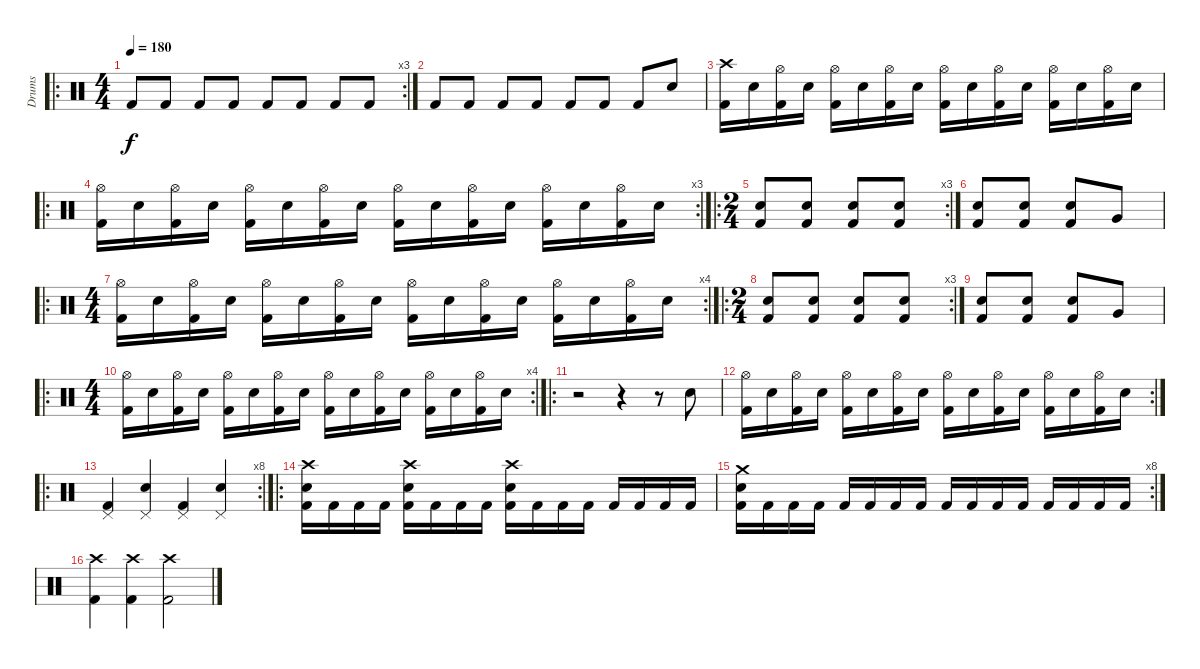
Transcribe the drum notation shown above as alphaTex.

\track ("Drums" "Drums") {instrument percussion}
\staff {score}
\articulation defaults
\ro
\rc 3
\ts (4 4)
\tempo 180
\clef neutral
\ks c "Kick (hit) 2".8{dy f} "Kick (hit) 2".8 "Kick (hit) 2".8 "Kick (hit) 2".8 "Kick (hit) 2".8 "Kick (hit) 2".8 "Kick (hit) 2".8 "Kick (hit) 2".8
|
"Kick (hit) 2".8 "Kick (hit) 2".8 "Kick (hit) 2".8 "Kick (hit) 2".8 "Kick (hit) 2".8 "Kick (hit) 2".8 "Kick (hit) 2".8 "Snare (hit) 2".8 |
("Crash high (hit)" "Kick (hit) 2").16 "Snare (hit) 2".16 ("Hi-Hat (open)" "Kick (hit) 2").16 "Snare (hit) 2".16 ("Hi-Hat (open)" "Kick (hit) 2").16 "Snare (hit) 2".16 ("Hi-Hat (open)" "Kick (hit) 2").16 "Snare (hit) 2".16 ("Hi-Hat (open)" "Kick (hit) 2").16 "Snare (hit) 2".16 ("Hi-Hat (open)" "Kick (hit) 2").16 "Snare (hit) 2".16 ("Hi-Hat (open)" "Kick (hit) 2").16 "Snare (hit) 2".16 ("Hi-Hat (open)" "Kick (hit) 2").16 "Snare (hit) 2".16 |
\ro
\rc 3
("Hi-Hat (open)" "Kick (hit) 2").16 "Snare (hit) 2".16 ("Hi-Hat (open)" "Kick (hit) 2").16 "Snare (hit) 2".16 ("Hi-Hat (open)" "Kick (hit) 2").16 "Snare (hit) 2".16 ("Hi-Hat (open)" "Kick (hit) 2").16 "Snare (hit) 2".16 ("Hi-Hat (open)" "Kick (hit) 2").16 "Snare (hit) 2".16 ("Hi-Hat (open)" "Kick (hit) 2").16 "Snare (hit) 2".16 ("Hi-Hat (open)" "Kick (hit) 2").16 "Snare (hit) 2".16 ("Hi-Hat (open)" "Kick (hit) 2").16 "Snare (hit) 2".16 |
\ro
\rc 3
\ts (2 4)
("Snare (hit) 2" "Kick (hit) 2").8 ("Snare (hit) 2" "Kick (hit) 2").8 ("Snare (hit) 2" "Kick (hit) 2").8 ("Snare (hit) 2" "Kick (hit) 2").8 |
("Snare (hit) 2" "Kick (hit) 2").8 ("Snare (hit) 2" "Kick (hit) 2").8 ("Snare (hit) 2" "Kick (hit) 2").8 "Very Low Tom (hit)".8 |
\ro
\rc 4
\ts (4 4)
("Hi-Hat (open)" "Kick (hit) 2").16 "Snare (hit) 2".16 ("Hi-Hat (open)" "Kick (hit) 2").16 "Snare (hit) 2".16 ("Hi-Hat (open)" "Kick (hit) 2").16 "Snare (hit) 2".16 ("Hi-Hat (open)" "Kick (hit) 2").16 "Snare (hit) 2".16 ("Hi-Hat (open)" "Kick (hit) 2").16 "Snare (hit) 2".16 ("Hi-Hat (open)" "Kick (hit) 2").16 "Snare (hit) 2".16 ("Hi-Hat (open)" "Kick (hit) 2").16 "Snare (hit) 2".16 ("Hi-Hat (open)" "Kick (hit) 2").16 "Snare (hit) 2".16 |
\ro
\rc 3
\ts (2 4)
("Snare (hit) 2" "Kick (hit) 2").8 ("Snare (hit) 2" "Kick (hit) 2").8 ("Snare (hit) 2" "Kick (hit) 2").8 ("Snare (hit) 2" "Kick (hit) 2").8 |
("Snare (hit) 2" "Kick (hit) 2").8 ("Snare (hit) 2" "Kick (hit) 2").8 ("Snare (hit) 2" "Kick (hit) 2").8 "Very Low Tom (hit)".8 |
\ro
\rc 4
\ts (4 4)
("Hi-Hat (open)" "Kick (hit) 2").16 "Snare (hit) 2".16 ("Hi-Hat (open)" "Kick (hit) 2").16 "Snare (hit) 2".16 ("Hi-Hat (open)" "Kick (hit) 2").16 "Snare (hit) 2".16 ("Hi-Hat (open)" "Kick (hit) 2").16 "Snare (hit) 2".16 ("Hi-Hat (open)" "Kick (hit) 2").16 "Snare (hit) 2".16 ("Hi-Hat (open)" "Kick (hit) 2").16 "Snare (hit) 2".16 ("Hi-Hat (open)" "Kick (hit) 2").16 "Snare (hit) 2".16 ("Hi-Hat (open)" "Kick (hit) 2").16 "Snare (hit) 2".16 |
\ro
r.2 r.4 r.8 "Snare (hit) 2".8 |
\rc 2
("Hi-Hat (open)" "Kick (hit) 2").16 "Snare (hit) 2".16 ("Hi-Hat (open)" "Kick (hit) 2").16 "Snare (hit) 2".16 ("Hi-Hat (open)" "Kick (hit) 2").16 "Snare (hit) 2".16 ("Hi-Hat (open)" "Kick (hit) 2").16 "Snare (hit) 2".16 ("Hi-Hat (open)" "Kick (hit) 2").16 "Snare (hit) 2".16 ("Hi-Hat (open)" "Kick (hit) 2").16 "Snare (hit) 2".16 ("Hi-Hat (open)" "Kick (hit) 2").16 "Snare (hit) 2".16 ("Hi-Hat (open)" "Kick (hit) 2").16 "Snare (hit) 2".16 |
\ro
\rc 8
("Pedal Hi-Hat (hit)" "Kick (hit) 2").4 ("Pedal Hi-Hat (hit)" "Snare (hit) 2").4 ("Pedal Hi-Hat (hit)" "Kick (hit) 2").4 ("Pedal Hi-Hat (hit)" "Snare (hit) 2").4 |
\ro
("Crash high (hit)" "Snare (hit) 2" "Kick (hit) 2").16 "Kick (hit) 2".16 "Kick (hit) 2".16 "Kick (hit) 2".16 ("Crash high (hit)" "Snare (hit) 2" "Kick (hit) 2").16 "Kick (hit) 2".16 "Kick (hit) 2".16 "Kick (hit) 2".16 ("Crash high (hit)" "Snare (hit) 2" "Kick (hit) 2").16 "Kick (hit) 2".16 "Kick (hit) 2".16 "Kick (hit) 2".16 "Kick (hit) 2".16 "Kick (hit) 2".16 "Kick (hit) 2".16 "Kick (hit) 2".16 |
\rc 8
("Crash medium (hit)" "Snare (hit) 2" "Kick (hit) 2").16 "Kick (hit) 2".16 "Kick (hit) 2".16 "Kick (hit) 2".16 "Kick (hit) 2".16 "Kick (hit) 2".16 "Kick (hit) 2".16 "Kick (hit) 2".16 "Kick (hit) 2".16 "Kick (hit) 2".16 "Kick (hit) 2".16 "Kick (hit) 2".16 "Kick (hit) 2".16 "Kick (hit) 2".16 "Kick (hit) 2".16 "Kick (hit) 2".16 |
("Crash high (hit)" "Kick (hit) 2").4 ("Crash high (hit)" "Kick (hit) 2").4 ("Crash high (hit)" "Kick (hit) 2").2
